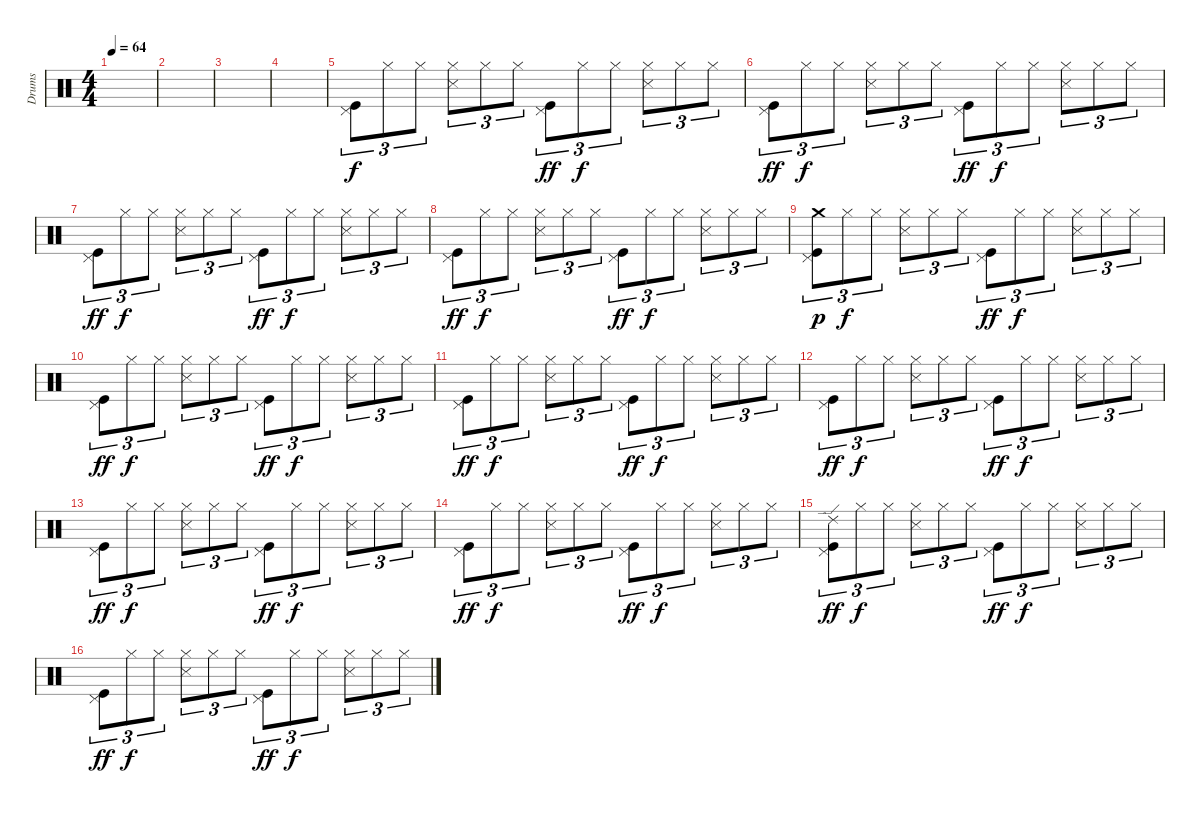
\track ("Drums" "Drums") {instrument percussion}
\staff {score}
\articulation defaults
\ts (4 4)
\tempo 64
\clef neutral
\ks c
|
|
|
|
("Pedal Hi-Hat (hit)" "Kick (hit)").8{tu (3 2)} "Hi-Hat (closed)".8{tu (3 2) dy f} "Hi-Hat (closed)".8{tu (3 2)} ("Hi-Hat (closed)" "Snare (side stick) 3").8{tu (3 2)} "Hi-Hat (closed)".8{tu (3 2)} "Hi-Hat (closed)".8{tu (3 2)} ("Pedal Hi-Hat (hit)" "Kick (hit)").8{tu (3 2) dy ff} "Hi-Hat (closed)".8{tu (3 2) dy f} "Hi-Hat (closed)".8{tu (3 2)} ("Hi-Hat (closed)" "Snare (side stick) 3").8{tu (3 2)} "Hi-Hat (closed)".8{tu (3 2)} "Hi-Hat (closed)".8{tu (3 2)} |
("Pedal Hi-Hat (hit)" "Kick (hit)").8{tu (3 2) dy ff} "Hi-Hat (closed)".8{tu (3 2) dy f} "Hi-Hat (closed)".8{tu (3 2)} ("Hi-Hat (closed)" "Snare (side stick) 3").8{tu (3 2)} "Hi-Hat (closed)".8{tu (3 2)} "Hi-Hat (closed)".8{tu (3 2)} ("Pedal Hi-Hat (hit)" "Kick (hit)").8{tu (3 2) dy ff} "Hi-Hat (closed)".8{tu (3 2) dy f} "Hi-Hat (closed)".8{tu (3 2)} ("Hi-Hat (closed)" "Snare (side stick) 3").8{tu (3 2)} "Hi-Hat (closed)".8{tu (3 2)} "Hi-Hat (closed)".8{tu (3 2)} |
("Pedal Hi-Hat (hit)" "Kick (hit)").8{tu (3 2) dy ff} "Hi-Hat (closed)".8{tu (3 2) dy f} "Hi-Hat (closed)".8{tu (3 2)} ("Hi-Hat (closed)" "Snare (side stick) 3").8{tu (3 2)} "Hi-Hat (closed)".8{tu (3 2)} "Hi-Hat (closed)".8{tu (3 2)} ("Pedal Hi-Hat (hit)" "Kick (hit)").8{tu (3 2) dy ff} "Hi-Hat (closed)".8{tu (3 2) dy f} "Hi-Hat (closed)".8{tu (3 2)} ("Hi-Hat (closed)" "Snare (side stick) 3").8{tu (3 2)} "Hi-Hat (closed)".8{tu (3 2)} "Hi-Hat (closed)".8{tu (3 2)} |
("Pedal Hi-Hat (hit)" "Kick (hit)").8{tu (3 2) dy ff} "Hi-Hat (closed)".8{tu (3 2) dy f} "Hi-Hat (closed)".8{tu (3 2)} ("Hi-Hat (closed)" "Snare (side stick) 3").8{tu (3 2)} "Hi-Hat (closed)".8{tu (3 2)} "Hi-Hat (closed)".8{tu (3 2)} ("Pedal Hi-Hat (hit)" "Kick (hit)").8{tu (3 2) dy ff} "Hi-Hat (closed)".8{tu (3 2) dy f} "Hi-Hat (closed)".8{tu (3 2)} ("Hi-Hat (closed)" "Snare (side stick) 3").8{tu (3 2)} "Hi-Hat (closed)".8{tu (3 2)} "Hi-Hat (closed)".8{tu (3 2)} |
("Pedal Hi-Hat (hit)" "Crash medium (hit)" "Kick (hit)").8{tu (3 2) dy p} "Hi-Hat (closed)".8{tu (3 2) dy f} "Hi-Hat (closed)".8{tu (3 2)} ("Hi-Hat (closed)" "Snare (side stick) 3").8{tu (3 2)} "Hi-Hat (closed)".8{tu (3 2)} "Hi-Hat (closed)".8{tu (3 2)} ("Pedal Hi-Hat (hit)" "Kick (hit)").8{tu (3 2) dy ff} "Hi-Hat (closed)".8{tu (3 2) dy f} "Hi-Hat (closed)".8{tu (3 2)} ("Hi-Hat (closed)" "Snare (side stick) 3").8{tu (3 2)} "Hi-Hat (closed)".8{tu (3 2)} "Hi-Hat (closed)".8{tu (3 2)} |
("Pedal Hi-Hat (hit)" "Kick (hit)").8{tu (3 2) dy ff} "Hi-Hat (closed)".8{tu (3 2) dy f} "Hi-Hat (closed)".8{tu (3 2)} ("Hi-Hat (closed)" "Snare (side stick) 3").8{tu (3 2)} "Hi-Hat (closed)".8{tu (3 2)} "Hi-Hat (closed)".8{tu (3 2)} ("Pedal Hi-Hat (hit)" "Kick (hit)").8{tu (3 2) dy ff} "Hi-Hat (closed)".8{tu (3 2) dy f} "Hi-Hat (closed)".8{tu (3 2)} ("Hi-Hat (closed)" "Snare (side stick) 3").8{tu (3 2)} "Hi-Hat (closed)".8{tu (3 2)} "Hi-Hat (closed)".8{tu (3 2)} |
("Pedal Hi-Hat (hit)" "Kick (hit)").8{tu (3 2) dy ff} "Hi-Hat (closed)".8{tu (3 2) dy f} "Hi-Hat (closed)".8{tu (3 2)} ("Hi-Hat (closed)" "Snare (side stick) 3").8{tu (3 2)} "Hi-Hat (closed)".8{tu (3 2)} "Hi-Hat (closed)".8{tu (3 2)} ("Pedal Hi-Hat (hit)" "Kick (hit)").8{tu (3 2) dy ff} "Hi-Hat (closed)".8{tu (3 2) dy f} "Hi-Hat (closed)".8{tu (3 2)} ("Hi-Hat (closed)" "Snare (side stick) 3").8{tu (3 2)} "Hi-Hat (closed)".8{tu (3 2)} "Hi-Hat (closed)".8{tu (3 2)} |
("Pedal Hi-Hat (hit)" "Kick (hit)").8{tu (3 2) dy ff} "Hi-Hat (closed)".8{tu (3 2) dy f} "Hi-Hat (closed)".8{tu (3 2)} ("Hi-Hat (closed)" "Snare (side stick) 3").8{tu (3 2)} "Hi-Hat (closed)".8{tu (3 2)} "Hi-Hat (closed)".8{tu (3 2)} ("Pedal Hi-Hat (hit)" "Kick (hit)").8{tu (3 2) dy ff} "Hi-Hat (closed)".8{tu (3 2) dy f} "Hi-Hat (closed)".8{tu (3 2)} ("Hi-Hat (closed)" "Snare (side stick) 3").8{tu (3 2)} "Hi-Hat (closed)".8{tu (3 2)} "Hi-Hat (closed)".8{tu (3 2)} |
("Pedal Hi-Hat (hit)" "Kick (hit)").8{tu (3 2) dy ff} "Hi-Hat (closed)".8{tu (3 2) dy f} "Hi-Hat (closed)".8{tu (3 2)} ("Hi-Hat (closed)" "Snare (side stick) 3").8{tu (3 2)} "Hi-Hat (closed)".8{tu (3 2)} "Hi-Hat (closed)".8{tu (3 2)} ("Pedal Hi-Hat (hit)" "Kick (hit)").8{tu (3 2) dy ff} "Hi-Hat (closed)".8{tu (3 2) dy f} "Hi-Hat (closed)".8{tu (3 2)} ("Hi-Hat (closed)" "Snare (side stick) 3").8{tu (3 2)} "Hi-Hat (closed)".8{tu (3 2)} "Hi-Hat (closed)".8{tu (3 2)} |
("Pedal Hi-Hat (hit)" "Kick (hit)").8{tu (3 2) dy ff} "Hi-Hat (closed)".8{tu (3 2) dy f} "Hi-Hat (closed)".8{tu (3 2)} ("Hi-Hat (closed)" "Snare (side stick) 3").8{tu (3 2)} "Hi-Hat (closed)".8{tu (3 2)} "Hi-Hat (closed)".8{tu (3 2)} ("Pedal Hi-Hat (hit)" "Kick (hit)").8{tu (3 2) dy ff} "Hi-Hat (closed)".8{tu (3 2) dy f} "Hi-Hat (closed)".8{tu (3 2)} ("Hi-Hat (closed)" "Snare (side stick) 3").8{tu (3 2)} "Hi-Hat (closed)".8{tu (3 2)} "Hi-Hat (closed)".8{tu (3 2)} |
("Pedal Hi-Hat (hit)" "Ride (edge) 2" "Kick (hit)").8{tu (3 2) dy ff} "Hi-Hat (closed)".8{tu (3 2) dy f} "Hi-Hat (closed)".8{tu (3 2)} ("Hi-Hat (closed)" "Snare (side stick) 3").8{tu (3 2)} "Hi-Hat (closed)".8{tu (3 2)} "Hi-Hat (closed)".8{tu (3 2)} ("Pedal Hi-Hat (hit)" "Kick (hit)").8{tu (3 2) dy ff} "Hi-Hat (closed)".8{tu (3 2) dy f} "Hi-Hat (closed)".8{tu (3 2)} ("Hi-Hat (closed)" "Snare (side stick) 3").8{tu (3 2)} "Hi-Hat (closed)".8{tu (3 2)} "Hi-Hat (closed)".8{tu (3 2)} |
("Pedal Hi-Hat (hit)" "Kick (hit)").8{tu (3 2) dy ff} "Hi-Hat (closed)".8{tu (3 2) dy f} "Hi-Hat (closed)".8{tu (3 2)} ("Hi-Hat (closed)" "Snare (side stick) 3").8{tu (3 2)} "Hi-Hat (closed)".8{tu (3 2)} "Hi-Hat (closed)".8{tu (3 2)} ("Pedal Hi-Hat (hit)" "Kick (hit)").8{tu (3 2) dy ff} "Hi-Hat (closed)".8{tu (3 2) dy f} "Hi-Hat (closed)".8{tu (3 2)} ("Hi-Hat (closed)" "Snare (side stick) 3").8{tu (3 2)} "Hi-Hat (closed)".8{tu (3 2)} "Hi-Hat (closed)".8{tu (3 2)}
